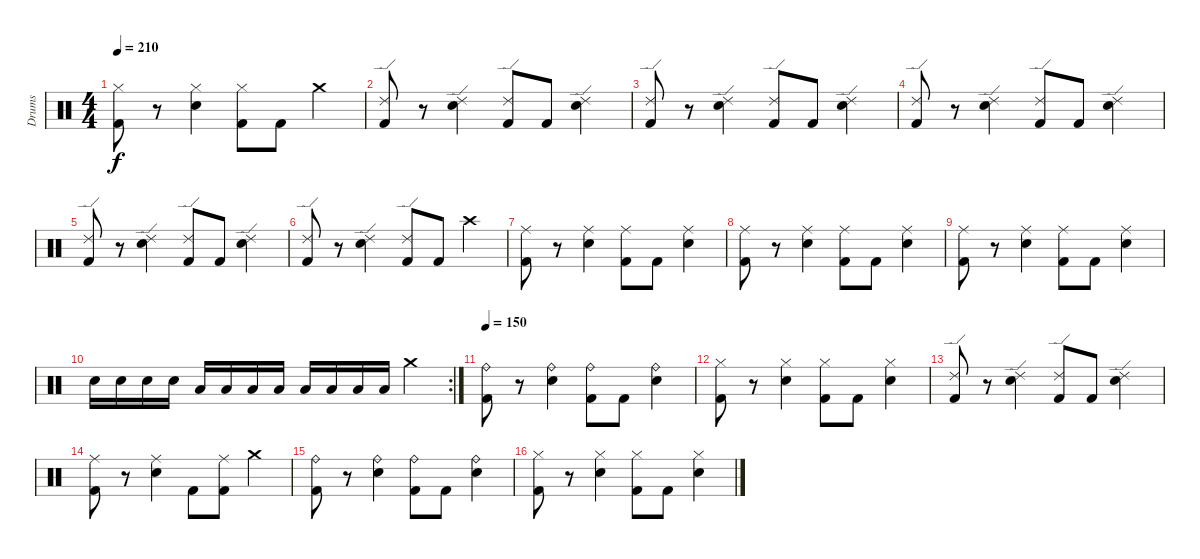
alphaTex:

\track ("Drums" "Drums") {instrument percussion}
\staff {score}
\articulation defaults
\ts (4 4)
\tempo 210
\clef neutral
\ks c
("Kick (hit) 2" "Hi-Hat (closed)").8{dy f} r.8 ("Snare (hit) 2" "Hi-Hat (closed)").4 ("Kick (hit) 2" "Hi-Hat (closed)").8 "Kick (hit) 2".8 "Crash medium (hit)".4 |
("Kick (hit) 2" "Ride (edge) 2").8 r.8 ("Snare (hit) 2" "Ride (edge) 2").4 ("Kick (hit) 2" "Ride (edge) 2").8 "Kick (hit) 2".8 ("Snare (hit) 2" "Ride (edge) 2").4 |
("Kick (hit) 2" "Ride (edge) 2").8 r.8 ("Snare (hit) 2" "Ride (edge) 2").4 ("Kick (hit) 2" "Ride (edge) 2").8 "Kick (hit) 2".8 ("Snare (hit) 2" "Ride (edge) 2").4 |
("Kick (hit) 2" "Ride (edge) 2").8 r.8 ("Snare (hit) 2" "Ride (edge) 2").4 ("Kick (hit) 2" "Ride (edge) 2").8 "Kick (hit) 2".8 ("Snare (hit) 2" "Ride (edge) 2").4 |
("Kick (hit) 2" "Ride (edge) 2").8 r.8 ("Snare (hit) 2" "Ride (edge) 2").4 ("Kick (hit) 2" "Ride (edge) 2").8 "Kick (hit) 2".8 ("Snare (hit) 2" "Ride (edge) 2").4 |
("Kick (hit) 2" "Ride (edge) 2").8 r.8 ("Snare (hit) 2" "Ride (edge) 2").4 ("Kick (hit) 2" "Ride (edge) 2").8 "Kick (hit) 2".8 "Crash high (hit)".4 |
("Kick (hit) 2" "Ride (middle)").8 r.8 ("Snare (hit) 2" "Ride (middle)").4 ("Kick (hit) 2" "Ride (middle)").8 "Kick (hit) 2".8 ("Snare (hit) 2" "Ride (middle)").4 |
("Kick (hit) 2" "Ride (middle)").8 r.8 ("Snare (hit) 2" "Ride (middle)").4 ("Kick (hit) 2" "Ride (middle)").8 "Kick (hit) 2".8 ("Snare (hit) 2" "Ride (middle)").4 |
("Kick (hit) 2" "Ride (middle)").8 r.8 ("Snare (hit) 2" "Ride (middle)").4 ("Kick (hit) 2" "Ride (middle)").8 "Kick (hit) 2".8 ("Snare (hit) 2" "Ride (middle)").4 |
\rc 2 "Snare (hit) 2".16 "Snare (hit) 2".16 "Snare (hit) 2".16 "Snare (hit) 2".16 "Low Tom (hit)".16 "Low Tom (hit)".16 "Low Tom (hit)".16 "Low Tom (hit)".16 "Low Floor Tom (hit)".16 "Low Floor Tom (hit)".16 "Low Floor Tom (hit)".16 "Low Floor Tom (hit)".16 "Crash medium (hit)".4
|
\tempo 150
("Kick (hit) 2" "Ride (bell)").8 r.8 ("Snare (hit) 2" "Ride (bell)").4 ("Kick (hit) 2" "Ride (bell)").8 "Kick (hit) 2".8 ("Snare (hit) 2" "Ride (bell)").4 |
("Kick (hit) 2" "Hi-Hat (closed)").8 r.8 ("Snare (hit) 2" "Hi-Hat (closed)").4 ("Kick (hit) 2" "Hi-Hat (closed)").8 "Kick (hit) 2".8 ("Snare (hit) 2" "Hi-Hat (closed)").4 |
("Kick (hit) 2" "Ride (edge) 2").8 r.8 ("Snare (hit) 2" "Ride (edge) 2").4 ("Kick (hit) 2" "Ride (edge) 2").8 "Kick (hit) 2".8 ("Snare (hit) 2" "Ride (edge) 2").4 |
("Kick (hit) 2" "Ride (middle)").8 r.8 ("Snare (hit) 2" "Ride (middle)").4 "Kick (hit) 2".8 ("Kick (hit) 2" "Ride (middle)").8 "Crash medium (hit)".4 |
("Kick (hit) 2" "Ride (bell)").8 r.8 ("Snare (hit) 2" "Ride (bell)").4 ("Kick (hit) 2" "Ride (bell)").8 "Kick (hit) 2".8 ("Snare (hit) 2" "Ride (bell)").4 |
("Kick (hit) 2" "Hi-Hat (closed)").8 r.8 ("Snare (hit) 2" "Hi-Hat (closed)").4 ("Kick (hit) 2" "Hi-Hat (closed)").8 "Kick (hit) 2".8 ("Snare (hit) 2" "Hi-Hat (closed)").4
